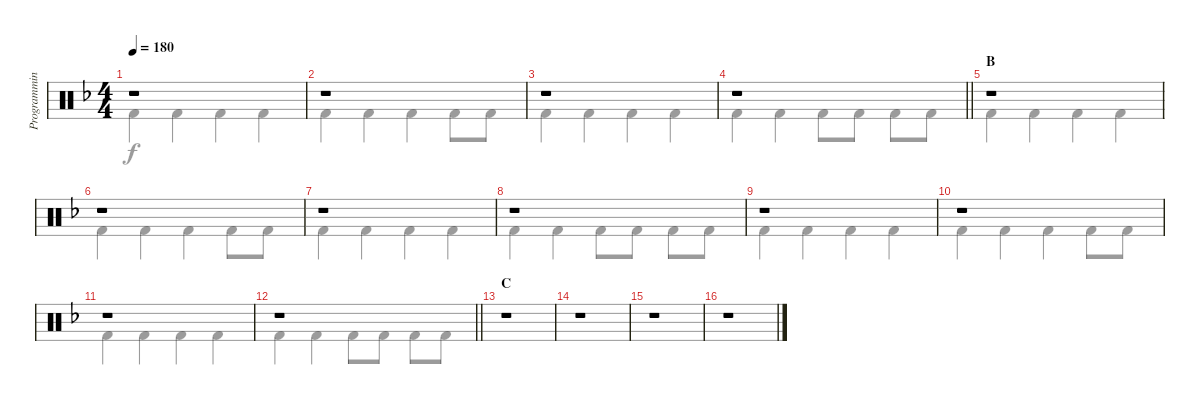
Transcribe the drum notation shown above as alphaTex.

\track ("Programming" "Programmin") {instrument percussion}
\staff {score}
\articulation defaults
\voice
\ts (4 4)
\tempo 180
\clef neutral
\ks f
r.1{dy mp} |
r.1 |
r.1 |
\barLineRight lightlight
r.1 |
\section ("" "B")
r.1 |
r.1 |
r.1 |
r.1 |
r.1 |
r.1 |
r.1 |
\barLineRight lightlight
r.1 |
\section ("" "C")
r.1 |
r.1 |
r.1 |
r.1
\voice
\clef neutral
\ottava regular
\simile none
\ks f "Kick (hit) 2".4{dy f} "Kick (hit) 2".4 "Kick (hit) 2".4 "Kick (hit) 2".4
|
"Kick (hit) 2".4 "Kick (hit) 2".4 "Kick (hit) 2".4 "Kick (hit) 2".8 "Kick (hit) 2".8 |
"Kick (hit) 2".4 "Kick (hit) 2".4 "Kick (hit) 2".4 "Kick (hit) 2".4 |
\barLineRight lightlight "Kick (hit) 2".4 "Kick (hit) 2".4 "Kick (hit) 2".8 "Kick (hit) 2".8 "Kick (hit) 2".8 "Kick (hit) 2".8
|
"Kick (hit) 2".4 "Kick (hit) 2".4 "Kick (hit) 2".4 "Kick (hit) 2".4 |
"Kick (hit) 2".4 "Kick (hit) 2".4 "Kick (hit) 2".4 "Kick (hit) 2".8 "Kick (hit) 2".8 |
"Kick (hit) 2".4 "Kick (hit) 2".4 "Kick (hit) 2".4 "Kick (hit) 2".4 |
"Kick (hit) 2".4 "Kick (hit) 2".4 "Kick (hit) 2".8 "Kick (hit) 2".8 "Kick (hit) 2".8 "Kick (hit) 2".8 |
"Kick (hit) 2".4 "Kick (hit) 2".4 "Kick (hit) 2".4 "Kick (hit) 2".4 |
"Kick (hit) 2".4 "Kick (hit) 2".4 "Kick (hit) 2".4 "Kick (hit) 2".8 "Kick (hit) 2".8 |
"Kick (hit) 2".4 "Kick (hit) 2".4 "Kick (hit) 2".4 "Kick (hit) 2".4 |
\barLineRight lightlight "Kick (hit) 2".4 "Kick (hit) 2".4 "Kick (hit) 2".8 "Kick (hit) 2".8 "Kick (hit) 2".8 "Kick (hit) 2".8
|
r.1 |
r.1 |
r.1 |
r.1
